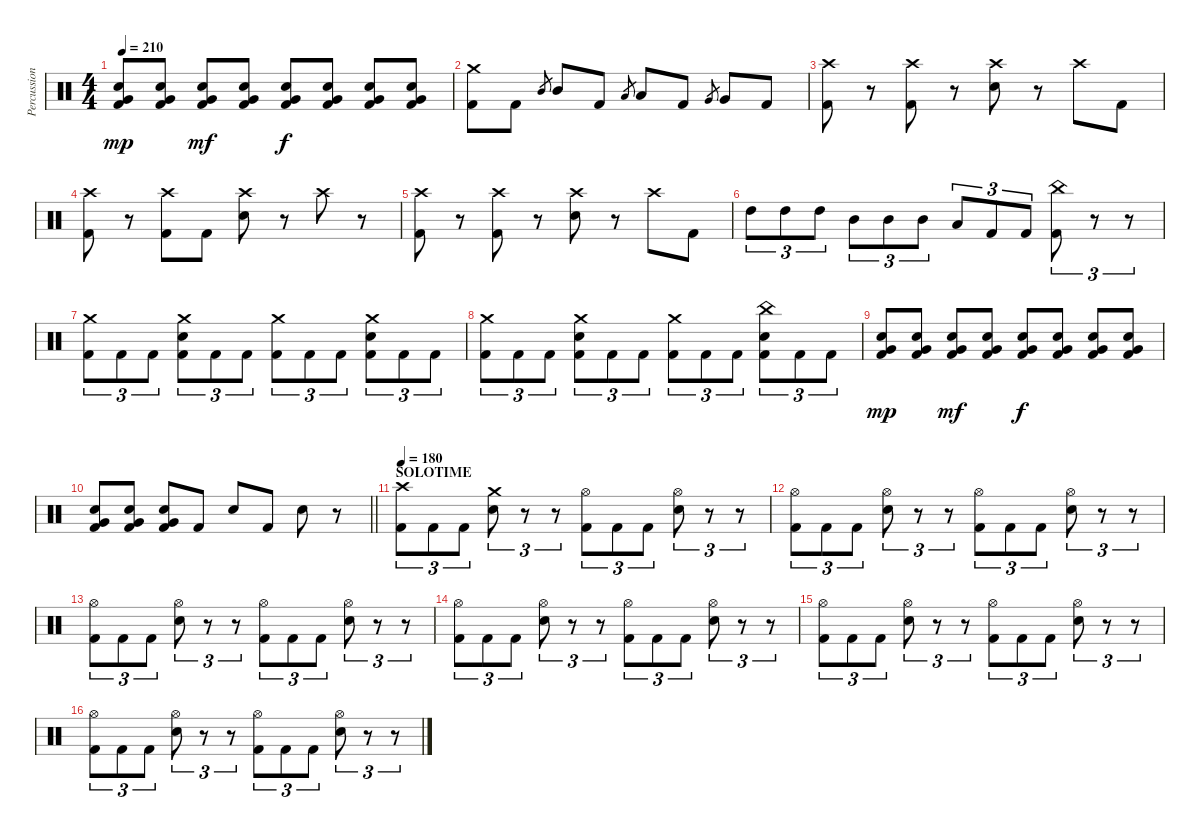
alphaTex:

\track ("Percussion" "Percussion") {instrument percussion}
\staff {score}
\articulation defaults
\ts (4 4)
\tempo 210
\clef neutral
\ks c
("Very Low Tom (hit)" "Snare (hit) 2" "Kick (hit) 2").8{dy mp} ("Very Low Tom (hit)" "Snare (hit) 2" "Kick (hit) 2").8 ("Very Low Tom (hit)" "Snare (hit) 2" "Kick (hit) 2").8{dy mf} ("Very Low Tom (hit)" "Snare (hit) 2" "Kick (hit) 2").8 ("Very Low Tom (hit)" "Snare (hit) 2" "Kick (hit) 2").8{dy f} ("Very Low Tom (hit)" "Snare (hit) 2" "Kick (hit) 2").8 ("Very Low Tom (hit)" "Snare (hit) 2" "Kick (hit) 2").8 ("Very Low Tom (hit)" "Snare (hit) 2" "Kick (hit) 2").8 |
("Crash medium (hit)" "Kick (hit) 2").8 "Kick (hit) 2".8 "Mid Tom (hit)".8{gr} "Mid Tom (hit)".8 "Kick (hit) 2".8 "Low Tom (hit)".8{gr} "Low Tom (hit)".8 "Kick (hit) 2".8 "Very Low Tom (hit)".8{gr} "Very Low Tom (hit)".8 "Kick (hit) 2".8 |
("Crash high (hit)" "Kick (hit) 2").8 r.8 ("Crash high (hit)" "Kick (hit) 2").8 r.8 ("Crash high (hit)" "Snare (hit) 2").8 r.8 "Crash high (hit)".8 "Kick (hit) 2".8 |
("Crash high (hit)" "Kick (hit) 2").8 r.8 ("Crash high (hit)" "Kick (hit) 2").8 "Kick (hit) 2".8 ("Crash high (hit)" "Snare (hit) 2").8 r.8 "Crash high (hit)".8 r.8 |
("Crash high (hit)" "Kick (hit) 2").8 r.8 ("Crash high (hit)" "Kick (hit) 2").8 r.8 ("Crash high (hit)" "Snare (hit) 2").8 r.8 "Crash high (hit)".8 "Kick (hit) 2".8 |
"High Tom (hit)".8{tu (3 2)} "High Tom (hit)".8{tu (3 2)} "High Tom (hit)".8{tu (3 2)} "Mid Tom (hit)".8{tu (3 2)} "Mid Tom (hit)".8{tu (3 2)} "Mid Tom (hit)".8{tu (3 2)} "Low Tom (hit)".8{tu (3 2)} "Kick (hit) 2".8{tu (3 2)} "Kick (hit) 2".8{tu (3 2)} ("China (hit)" "Kick (hit) 2").8{tu (3 2)} r.8{tu (3 2)} r.8{tu (3 2)} |
("Crash medium (hit)" "Kick (hit) 2").8{tu (3 2)} "Kick (hit) 2".8{tu (3 2)} "Kick (hit) 2".8{tu (3 2)} ("Crash medium (hit)" "Snare (hit) 2" "Kick (hit) 2").8{tu (3 2)} "Kick (hit) 2".8{tu (3 2)} "Kick (hit) 2".8{tu (3 2)} ("Crash medium (hit)" "Kick (hit) 2").8{tu (3 2)} "Kick (hit) 2".8{tu (3 2)} "Kick (hit) 2".8{tu (3 2)} ("Crash medium (hit)" "Snare (hit) 2" "Kick (hit) 2").8{tu (3 2)} "Kick (hit) 2".8{tu (3 2)} "Kick (hit) 2".8{tu (3 2)} |
("Crash medium (hit)" "Kick (hit) 2").8{tu (3 2)} "Kick (hit) 2".8{tu (3 2)} "Kick (hit) 2".8{tu (3 2)} ("Crash medium (hit)" "Snare (hit) 2" "Kick (hit) 2").8{tu (3 2)} "Kick (hit) 2".8{tu (3 2)} "Kick (hit) 2".8{tu (3 2)} ("Crash medium (hit)" "Kick (hit) 2").8{tu (3 2)} "Kick (hit) 2".8{tu (3 2)} "Kick (hit) 2".8{tu (3 2)} ("China (hit)" "Snare (hit) 2" "Kick (hit) 2").8{tu (3 2)} "Kick (hit) 2".8{tu (3 2)} "Kick (hit) 2".8{tu (3 2)} |
("Very Low Tom (hit)" "Snare (hit) 2" "Kick (hit) 2").8{dy mp} ("Very Low Tom (hit)" "Snare (hit) 2" "Kick (hit) 2").8 ("Very Low Tom (hit)" "Snare (hit) 2" "Kick (hit) 2").8{dy mf} ("Very Low Tom (hit)" "Snare (hit) 2" "Kick (hit) 2").8 ("Very Low Tom (hit)" "Snare (hit) 2" "Kick (hit) 2").8{dy f} ("Very Low Tom (hit)" "Snare (hit) 2" "Kick (hit) 2").8 ("Very Low Tom (hit)" "Snare (hit) 2" "Kick (hit) 2").8 ("Very Low Tom (hit)" "Snare (hit) 2" "Kick (hit) 2").8 |
\barLineRight lightlight
("Very Low Tom (hit)" "Snare (hit) 2" "Kick (hit) 2").8 ("Very Low Tom (hit)" "Snare (hit) 2" "Kick (hit) 2").8 ("Very Low Tom (hit)" "Snare (hit) 2" "Kick (hit) 2").8 "Kick (hit) 2".8 "Snare (hit) 2".8 "Kick (hit) 2".8 "Snare (hit) 2".8 r.8 |
\section ("" "SOLOTIME")
\tempo 180
("Crash high (hit)" "Kick (hit) 2").8{tu (3 2)} "Kick (hit) 2".8{tu (3 2)} "Kick (hit) 2".8{tu (3 2)} ("Crash medium (hit)" "Snare (hit) 2").8{tu (3 2)} r.8{tu (3 2)} r.8{tu (3 2)} ("Hi-Hat (open)" "Kick (hit) 2").8{tu (3 2)} "Kick (hit) 2".8{tu (3 2)} "Kick (hit) 2".8{tu (3 2)} ("Hi-Hat (open)" "Snare (hit) 2").8{tu (3 2)} r.8{tu (3 2)} r.8{tu (3 2)} |
("Hi-Hat (open)" "Kick (hit) 2").8{tu (3 2)} "Kick (hit) 2".8{tu (3 2)} "Kick (hit) 2".8{tu (3 2)} ("Hi-Hat (open)" "Snare (hit) 2").8{tu (3 2)} r.8{tu (3 2)} r.8{tu (3 2)} ("Hi-Hat (open)" "Kick (hit) 2").8{tu (3 2)} "Kick (hit) 2".8{tu (3 2)} "Kick (hit) 2".8{tu (3 2)} ("Hi-Hat (open)" "Snare (hit) 2").8{tu (3 2)} r.8{tu (3 2)} r.8{tu (3 2)} |
("Hi-Hat (open)" "Kick (hit) 2").8{tu (3 2)} "Kick (hit) 2".8{tu (3 2)} "Kick (hit) 2".8{tu (3 2)} ("Hi-Hat (open)" "Snare (hit) 2").8{tu (3 2)} r.8{tu (3 2)} r.8{tu (3 2)} ("Hi-Hat (open)" "Kick (hit) 2").8{tu (3 2)} "Kick (hit) 2".8{tu (3 2)} "Kick (hit) 2".8{tu (3 2)} ("Hi-Hat (open)" "Snare (hit) 2").8{tu (3 2)} r.8{tu (3 2)} r.8{tu (3 2)} |
("Hi-Hat (open)" "Kick (hit) 2").8{tu (3 2)} "Kick (hit) 2".8{tu (3 2)} "Kick (hit) 2".8{tu (3 2)} ("Hi-Hat (open)" "Snare (hit) 2").8{tu (3 2)} r.8{tu (3 2)} r.8{tu (3 2)} ("Hi-Hat (open)" "Kick (hit) 2").8{tu (3 2)} "Kick (hit) 2".8{tu (3 2)} "Kick (hit) 2".8{tu (3 2)} ("Hi-Hat (open)" "Snare (hit) 2").8{tu (3 2)} r.8{tu (3 2)} r.8{tu (3 2)} |
("Hi-Hat (open)" "Kick (hit) 2").8{tu (3 2)} "Kick (hit) 2".8{tu (3 2)} "Kick (hit) 2".8{tu (3 2)} ("Hi-Hat (open)" "Snare (hit) 2").8{tu (3 2)} r.8{tu (3 2)} r.8{tu (3 2)} ("Hi-Hat (open)" "Kick (hit) 2").8{tu (3 2)} "Kick (hit) 2".8{tu (3 2)} "Kick (hit) 2".8{tu (3 2)} ("Hi-Hat (open)" "Snare (hit) 2").8{tu (3 2)} r.8{tu (3 2)} r.8{tu (3 2)} |
("Hi-Hat (open)" "Kick (hit) 2").8{tu (3 2)} "Kick (hit) 2".8{tu (3 2)} "Kick (hit) 2".8{tu (3 2)} ("Hi-Hat (open)" "Snare (hit) 2").8{tu (3 2)} r.8{tu (3 2)} r.8{tu (3 2)} ("Hi-Hat (open)" "Kick (hit) 2").8{tu (3 2)} "Kick (hit) 2".8{tu (3 2)} "Kick (hit) 2".8{tu (3 2)} ("Hi-Hat (open)" "Snare (hit) 2").8{tu (3 2)} r.8{tu (3 2)} r.8{tu (3 2)}
